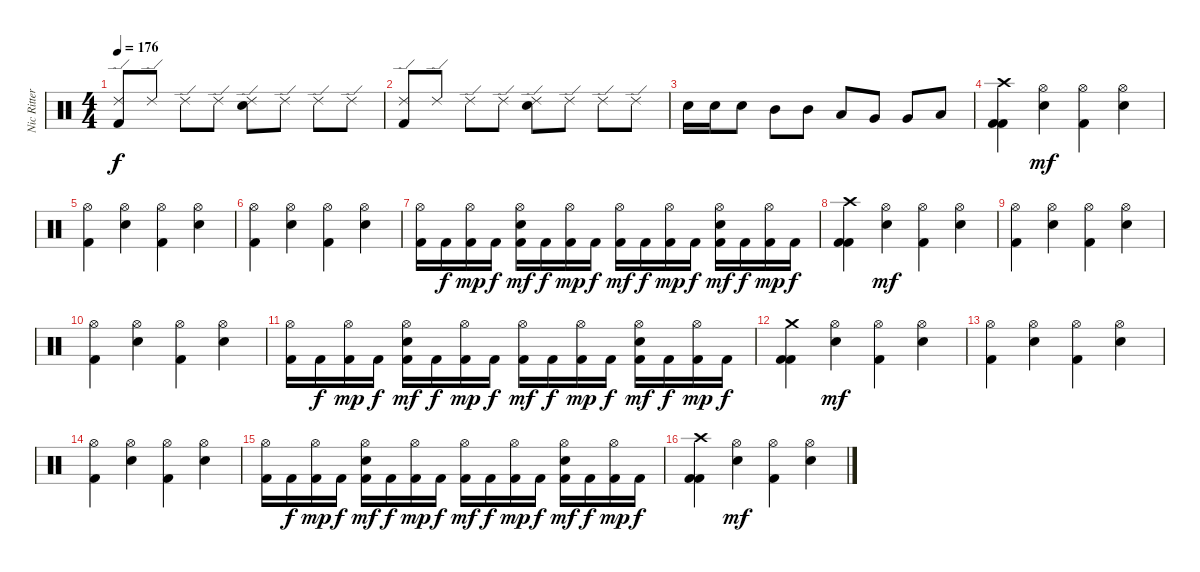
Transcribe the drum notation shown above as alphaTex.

\track ("Nic Ritter" "Nic Ritter") {instrument percussion}
\staff {score}
\articulation defaults
\ts (4 4)
\tempo 176
\clef neutral
\ks c
("Ride (edge) 2" "Kick (hit) 2").8{dy f} "Ride (edge) 2".8 "Ride (edge) 2".8 "Ride (edge) 2".8 ("Ride (edge) 2" "Electric Snare (hit)").8 "Ride (edge) 2".8 "Ride (edge) 2".8 "Ride (edge) 2".8 |
("Ride (edge) 2" "Kick (hit) 2").8 "Ride (edge) 2".8 "Ride (edge) 2".8 "Ride (edge) 2".8 ("Ride (edge) 2" "Electric Snare (hit)").8 "Ride (edge) 2".8 "Ride (edge) 2".8 "Ride (edge) 2".8 |
"Electric Snare (hit)".16 "Electric Snare (hit)".16 "Electric Snare (hit)".8 "Mid Tom (hit)".8 "Mid Tom (hit)".8 "Low Tom (hit)".8 "Very Low Tom (hit)".8 "Very Low Tom (hit)".8 "Low Floor Tom (hit)".8 |
("Crash high (hit)" "Kick (hit) 2" "Kick (hit) 2").4 ("Hi-Hat (open)" "Electric Snare (hit)").4{dy mf} ("Hi-Hat (open)" "Kick (hit) 2").4 ("Hi-Hat (open)" "Electric Snare (hit)").4 |
("Hi-Hat (open)" "Kick (hit) 2").4 ("Hi-Hat (open)" "Electric Snare (hit)").4 ("Hi-Hat (open)" "Kick (hit) 2").4 ("Hi-Hat (open)" "Electric Snare (hit)").4 |
("Hi-Hat (open)" "Kick (hit) 2").4 ("Hi-Hat (open)" "Electric Snare (hit)").4 ("Hi-Hat (open)" "Kick (hit) 2").4 ("Hi-Hat (open)" "Electric Snare (hit)").4 |
("Hi-Hat (open)" "Kick (hit) 2").16 "Kick (hit) 2".16{dy f} ("Hi-Hat (open)" "Kick (hit) 2").16{dy mp} "Kick (hit) 2".16{dy f} ("Hi-Hat (open)" "Electric Snare (hit)" "Kick (hit) 2").16{dy mf} "Kick (hit) 2".16{dy f} ("Hi-Hat (open)" "Kick (hit) 2").16{dy mp} "Kick (hit) 2".16{dy f} ("Hi-Hat (open)" "Kick (hit) 2").16{dy mf} "Kick (hit) 2".16{dy f} ("Hi-Hat (open)" "Kick (hit) 2").16{dy mp} "Kick (hit) 2".16{dy f} ("Hi-Hat (open)" "Electric Snare (hit)" "Kick (hit) 2").16{dy mf} "Kick (hit) 2".16{dy f} ("Hi-Hat (open)" "Kick (hit) 2").16{dy mp} "Kick (hit) 2".16{dy f} |
("Crash high (hit)" "Kick (hit) 2" "Kick (hit) 2").4 ("Hi-Hat (open)" "Electric Snare (hit)").4{dy mf} ("Hi-Hat (open)" "Kick (hit) 2").4 ("Hi-Hat (open)" "Electric Snare (hit)").4 |
("Hi-Hat (open)" "Kick (hit) 2").4 ("Hi-Hat (open)" "Electric Snare (hit)").4 ("Hi-Hat (open)" "Kick (hit) 2").4 ("Hi-Hat (open)" "Electric Snare (hit)").4 |
("Hi-Hat (open)" "Kick (hit) 2").4 ("Hi-Hat (open)" "Electric Snare (hit)").4 ("Hi-Hat (open)" "Kick (hit) 2").4 ("Hi-Hat (open)" "Electric Snare (hit)").4 |
("Hi-Hat (open)" "Kick (hit) 2").16 "Kick (hit) 2".16{dy f} ("Hi-Hat (open)" "Kick (hit) 2").16{dy mp} "Kick (hit) 2".16{dy f} ("Hi-Hat (open)" "Electric Snare (hit)" "Kick (hit) 2").16{dy mf} "Kick (hit) 2".16{dy f} ("Hi-Hat (open)" "Kick (hit) 2").16{dy mp} "Kick (hit) 2".16{dy f} ("Hi-Hat (open)" "Kick (hit) 2").16{dy mf} "Kick (hit) 2".16{dy f} ("Hi-Hat (open)" "Kick (hit) 2").16{dy mp} "Kick (hit) 2".16{dy f} ("Hi-Hat (open)" "Electric Snare (hit)" "Kick (hit) 2").16{dy mf} "Kick (hit) 2".16{dy f} ("Hi-Hat (open)" "Kick (hit) 2").16{dy mp} "Kick (hit) 2".16{dy f} |
("Crash medium (hit)" "Kick (hit) 2" "Kick (hit) 2").4 ("Hi-Hat (open)" "Electric Snare (hit)").4{dy mf} ("Hi-Hat (open)" "Kick (hit) 2").4 ("Hi-Hat (open)" "Electric Snare (hit)").4 |
("Hi-Hat (open)" "Kick (hit) 2").4 ("Hi-Hat (open)" "Electric Snare (hit)").4 ("Hi-Hat (open)" "Kick (hit) 2").4 ("Hi-Hat (open)" "Electric Snare (hit)").4 |
("Hi-Hat (open)" "Kick (hit) 2").4 ("Hi-Hat (open)" "Electric Snare (hit)").4 ("Hi-Hat (open)" "Kick (hit) 2").4 ("Hi-Hat (open)" "Electric Snare (hit)").4 |
("Hi-Hat (open)" "Kick (hit) 2").16 "Kick (hit) 2".16{dy f} ("Hi-Hat (open)" "Kick (hit) 2").16{dy mp} "Kick (hit) 2".16{dy f} ("Hi-Hat (open)" "Electric Snare (hit)" "Kick (hit) 2").16{dy mf} "Kick (hit) 2".16{dy f} ("Hi-Hat (open)" "Kick (hit) 2").16{dy mp} "Kick (hit) 2".16{dy f} ("Hi-Hat (open)" "Kick (hit) 2").16{dy mf} "Kick (hit) 2".16{dy f} ("Hi-Hat (open)" "Kick (hit) 2").16{dy mp} "Kick (hit) 2".16{dy f} ("Hi-Hat (open)" "Electric Snare (hit)" "Kick (hit) 2").16{dy mf} "Kick (hit) 2".16{dy f} ("Hi-Hat (open)" "Kick (hit) 2").16{dy mp} "Kick (hit) 2".16{dy f} |
("Crash high (hit)" "Kick (hit) 2" "Kick (hit) 2").4 ("Hi-Hat (open)" "Electric Snare (hit)").4{dy mf} ("Hi-Hat (open)" "Kick (hit) 2").4 ("Hi-Hat (open)" "Electric Snare (hit)").4
